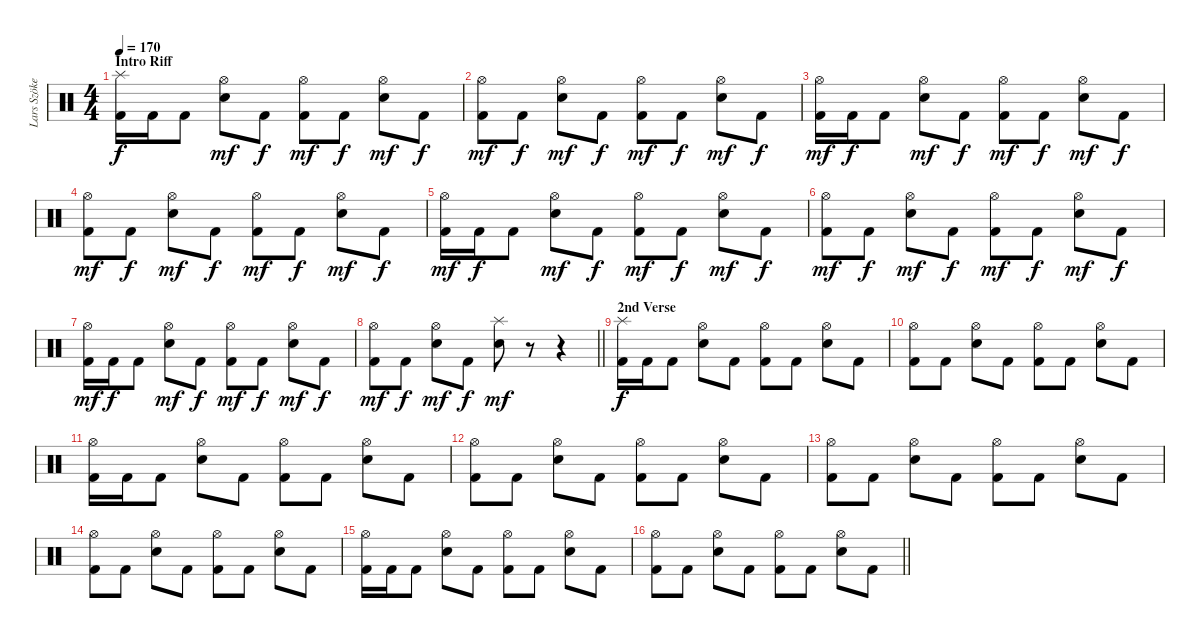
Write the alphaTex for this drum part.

\track ("Lars Szöke" "Lars Szöke") {instrument percussion}
\staff {score}
\articulation defaults
\ts (4 4)
\section ("" "Intro Riff")
\tempo 170
\clef neutral
\ks c
("Splash (hit)" "Kick (hit) 2").16{dy f} "Kick (hit) 2".16 "Kick (hit) 2".8 ("Hi-Hat (open)" "Snare (hit) 2").8{dy mf} "Kick (hit) 2".8{dy f} ("Hi-Hat (open)" "Kick (hit) 2").8{dy mf} "Kick (hit) 2".8{dy f} ("Hi-Hat (open)" "Snare (hit) 2").8{dy mf} "Kick (hit) 2".8{dy f} |
("Hi-Hat (open)" "Kick (hit) 2").8{dy mf} "Kick (hit) 2".8{dy f} ("Hi-Hat (open)" "Snare (hit) 2").8{dy mf} "Kick (hit) 2".8{dy f} ("Hi-Hat (open)" "Kick (hit) 2").8{dy mf} "Kick (hit) 2".8{dy f} ("Hi-Hat (open)" "Snare (hit) 2").8{dy mf} "Kick (hit) 2".8{dy f} |
("Hi-Hat (open)" "Kick (hit) 2").16{dy mf} "Kick (hit) 2".16{dy f} "Kick (hit) 2".8 ("Hi-Hat (open)" "Snare (hit) 2").8{dy mf} "Kick (hit) 2".8{dy f} ("Hi-Hat (open)" "Kick (hit) 2").8{dy mf} "Kick (hit) 2".8{dy f} ("Hi-Hat (open)" "Snare (hit) 2").8{dy mf} "Kick (hit) 2".8{dy f} |
("Hi-Hat (open)" "Kick (hit) 2").8{dy mf} "Kick (hit) 2".8{dy f} ("Hi-Hat (open)" "Snare (hit) 2").8{dy mf} "Kick (hit) 2".8{dy f} ("Hi-Hat (open)" "Kick (hit) 2").8{dy mf} "Kick (hit) 2".8{dy f} ("Hi-Hat (open)" "Snare (hit) 2").8{dy mf} "Kick (hit) 2".8{dy f} |
("Hi-Hat (open)" "Kick (hit) 2").16{dy mf} "Kick (hit) 2".16{dy f} "Kick (hit) 2".8 ("Hi-Hat (open)" "Snare (hit) 2").8{dy mf} "Kick (hit) 2".8{dy f} ("Hi-Hat (open)" "Kick (hit) 2").8{dy mf} "Kick (hit) 2".8{dy f} ("Hi-Hat (open)" "Snare (hit) 2").8{dy mf} "Kick (hit) 2".8{dy f} |
("Hi-Hat (open)" "Kick (hit) 2").8{dy mf} "Kick (hit) 2".8{dy f} ("Hi-Hat (open)" "Snare (hit) 2").8{dy mf} "Kick (hit) 2".8{dy f} ("Hi-Hat (open)" "Kick (hit) 2").8{dy mf} "Kick (hit) 2".8{dy f} ("Hi-Hat (open)" "Snare (hit) 2").8{dy mf} "Kick (hit) 2".8{dy f} |
("Hi-Hat (open)" "Kick (hit) 2").16{dy mf} "Kick (hit) 2".16{dy f} "Kick (hit) 2".8 ("Hi-Hat (open)" "Snare (hit) 2").8{dy mf} "Kick (hit) 2".8{dy f} ("Hi-Hat (open)" "Kick (hit) 2").8{dy mf} "Kick (hit) 2".8{dy f} ("Hi-Hat (open)" "Snare (hit) 2").8{dy mf} "Kick (hit) 2".8{dy f} |
\barLineRight lightlight
("Hi-Hat (open)" "Kick (hit) 2").8{dy mf} "Kick (hit) 2".8{dy f} ("Hi-Hat (open)" "Snare (hit) 2").8{dy mf} "Kick (hit) 2".8{dy f} ("Splash (hit)" "Snare (hit) 2").8{dy mf} r.8 r.4 |
\section ("" "2nd Verse")
("Splash (hit)" "Kick (hit) 2").16{dy f} "Kick (hit) 2".16 "Kick (hit) 2".8 ("Hi-Hat (open)" "Snare (hit) 2").8 "Kick (hit) 2".8 ("Hi-Hat (open)" "Kick (hit) 2").8 "Kick (hit) 2".8 ("Hi-Hat (open)" "Snare (hit) 2").8 "Kick (hit) 2".8 |
("Hi-Hat (open)" "Kick (hit) 2").8 "Kick (hit) 2".8 ("Hi-Hat (open)" "Snare (hit) 2").8 "Kick (hit) 2".8 ("Hi-Hat (open)" "Kick (hit) 2").8 "Kick (hit) 2".8 ("Hi-Hat (open)" "Snare (hit) 2").8 "Kick (hit) 2".8 |
("Hi-Hat (open)" "Kick (hit) 2").16 "Kick (hit) 2".16 "Kick (hit) 2".8 ("Hi-Hat (open)" "Snare (hit) 2").8 "Kick (hit) 2".8 ("Hi-Hat (open)" "Kick (hit) 2").8 "Kick (hit) 2".8 ("Hi-Hat (open)" "Snare (hit) 2").8 "Kick (hit) 2".8 |
("Hi-Hat (open)" "Kick (hit) 2").8 "Kick (hit) 2".8 ("Hi-Hat (open)" "Snare (hit) 2").8 "Kick (hit) 2".8 ("Hi-Hat (open)" "Kick (hit) 2").8 "Kick (hit) 2".8 ("Hi-Hat (open)" "Snare (hit) 2").8 "Kick (hit) 2".8 |
("Hi-Hat (open)" "Kick (hit) 2").8 "Kick (hit) 2".8 ("Hi-Hat (open)" "Snare (hit) 2").8 "Kick (hit) 2".8 ("Hi-Hat (open)" "Kick (hit) 2").8 "Kick (hit) 2".8 ("Hi-Hat (open)" "Snare (hit) 2").8 "Kick (hit) 2".8 |
("Hi-Hat (open)" "Kick (hit) 2").8 "Kick (hit) 2".8 ("Hi-Hat (open)" "Snare (hit) 2").8 "Kick (hit) 2".8 ("Hi-Hat (open)" "Kick (hit) 2").8 "Kick (hit) 2".8 ("Hi-Hat (open)" "Snare (hit) 2").8 "Kick (hit) 2".8 |
("Hi-Hat (open)" "Kick (hit) 2").16 "Kick (hit) 2".16 "Kick (hit) 2".8 ("Hi-Hat (open)" "Snare (hit) 2").8 "Kick (hit) 2".8 ("Hi-Hat (open)" "Kick (hit) 2").8 "Kick (hit) 2".8 ("Hi-Hat (open)" "Snare (hit) 2").8 "Kick (hit) 2".8 |
\barLineRight lightlight
("Hi-Hat (open)" "Kick (hit) 2").8 "Kick (hit) 2".8 ("Hi-Hat (open)" "Snare (hit) 2").8 "Kick (hit) 2".8 ("Hi-Hat (open)" "Kick (hit) 2").8 "Kick (hit) 2".8 ("Hi-Hat (open)" "Snare (hit) 2").8 "Kick (hit) 2".8
